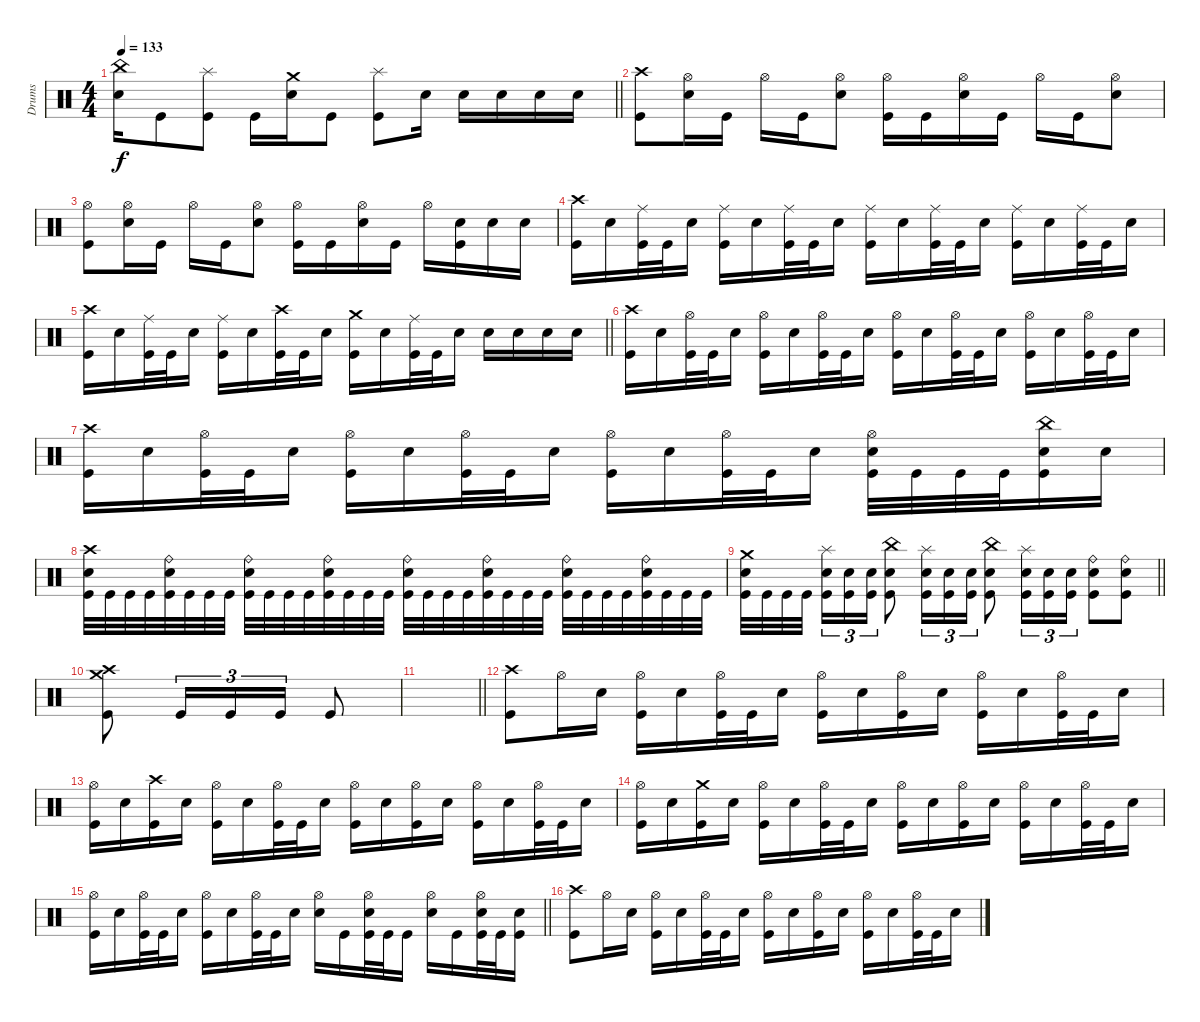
\track ("Drums" "Drums") {instrument percussion}
\staff
\articulation defaults
\ts (4 4)
\tempo 133
\clef neutral
\barLineRight lightlight
\ks c
("China (hit)" "Electric Snare (hit)").16{dy f} "Kick (hit)".8 ("Splash (hit)" "Kick (hit)").8 "Kick (hit)".16 ("Crash medium (hit)" "Electric Snare (hit)").16 "Kick (hit)".8 ("Splash (hit)" "Kick (hit)").8 "Electric Snare (hit)".16 "Electric Snare (hit)".16 "Electric Snare (hit)".16 "Electric Snare (hit)".16 "Electric Snare (hit)".16 |
("Crash high (hit)" "Kick (hit)").8 ("Hi-Hat (open)" "Electric Snare (hit)").16 "Kick (hit)".16 "Hi-Hat (open)".16 "Kick (hit)".16 ("Hi-Hat (open)" "Electric Snare (hit)").8 ("Hi-Hat (open)" "Kick (hit)").16 "Kick (hit)".16 ("Hi-Hat (open)" "Electric Snare (hit)").16 "Kick (hit)".16 "Hi-Hat (open)".16 "Kick (hit)".16 ("Hi-Hat (open)" "Electric Snare (hit)").8 |
("Hi-Hat (open)" "Kick (hit)").8 ("Hi-Hat (open)" "Electric Snare (hit)").16 "Kick (hit)".16 "Hi-Hat (open)".16 "Kick (hit)".16 ("Hi-Hat (open)" "Electric Snare (hit)").8 ("Hi-Hat (open)" "Kick (hit)").16 "Kick (hit)".16 ("Hi-Hat (open)" "Electric Snare (hit)").16 "Kick (hit)".16 "Hi-Hat (open)".16 ("Electric Snare (hit)" "Kick (hit)").16 "Electric Snare (hit)".16 "Electric Snare (hit)".16 |
("Crash high (hit)" "Kick (hit)").16 "Electric Snare (hit)".16 ("Ride (middle)" "Kick (hit)").32 "Kick (hit)".32 "Electric Snare (hit)".16 ("Ride (middle)" "Kick (hit)").16 "Electric Snare (hit)".16 ("Ride (middle)" "Kick (hit)").32 "Kick (hit)".32 "Electric Snare (hit)".16 ("Ride (middle)" "Kick (hit)").16 "Electric Snare (hit)".16 ("Ride (middle)" "Kick (hit)").32 "Kick (hit)".32 "Electric Snare (hit)".16 ("Ride (middle)" "Kick (hit)").16 "Electric Snare (hit)".16 ("Ride (middle)" "Kick (hit)").32 "Kick (hit)".32 "Electric Snare (hit)".16 |
\barLineRight lightlight
("Crash high (hit)" "Kick (hit)").16 "Electric Snare (hit)".16 ("Ride (middle)" "Kick (hit)").32 "Kick (hit)".32 "Electric Snare (hit)".16 ("Ride (middle)" "Kick (hit)").16 "Electric Snare (hit)".16 ("Crash high (hit)" "Kick (hit)").32 "Kick (hit)".32 "Electric Snare (hit)".16 ("Crash medium (hit)" "Kick (hit)").16 "Electric Snare (hit)".16 ("Ride (middle)" "Kick (hit)").32 "Kick (hit)".32 "Electric Snare (hit)".16 "Electric Snare (hit)".16 "Electric Snare (hit)".16 "Electric Snare (hit)".16 "Electric Snare (hit)".16 |
("Crash high (hit)" "Kick (hit)").16 "Electric Snare (hit)".16 ("Hi-Hat (open)" "Kick (hit)").32 "Kick (hit)".32 "Electric Snare (hit)".16 ("Hi-Hat (open)" "Kick (hit)").16 "Electric Snare (hit)".16 ("Hi-Hat (open)" "Kick (hit)").32 "Kick (hit)".32 "Electric Snare (hit)".16 ("Hi-Hat (open)" "Kick (hit)").16 "Electric Snare (hit)".16 ("Hi-Hat (open)" "Kick (hit)").32 "Kick (hit)".32 "Electric Snare (hit)".16 ("Hi-Hat (open)" "Kick (hit)").16 "Electric Snare (hit)".16 ("Hi-Hat (open)" "Kick (hit)").32 "Kick (hit)".32 "Electric Snare (hit)".16 |
("Crash high (hit)" "Kick (hit)").16 "Electric Snare (hit)".16 ("Hi-Hat (open)" "Kick (hit)").32 "Kick (hit)".32 "Electric Snare (hit)".16 ("Hi-Hat (open)" "Kick (hit)").16 "Electric Snare (hit)".16 ("Hi-Hat (open)" "Kick (hit)").32 "Kick (hit)".32 "Electric Snare (hit)".16 ("Hi-Hat (open)" "Kick (hit)").16 "Electric Snare (hit)".16 ("Hi-Hat (open)" "Kick (hit)").32 "Kick (hit)".32 "Electric Snare (hit)".16 ("Hi-Hat (open)" "Electric Snare (hit)" "Kick (hit)").32 "Kick (hit)".32 "Kick (hit)".32 "Kick (hit)".32 ("China (hit)" "Electric Snare (hit)" "Kick (hit)").16 "Electric Snare (hit)".16 |
("Crash high (hit)" "Electric Snare (hit)" "Kick (hit)").32 "Kick (hit)".32 "Kick (hit)".32 "Kick (hit)".32 ("Ride (bell)" "Electric Snare (hit)" "Kick (hit)").32 "Kick (hit)".32 "Kick (hit)".32 "Kick (hit)".32 ("Ride (bell)" "Electric Snare (hit)" "Kick (hit)").32 "Kick (hit)".32 "Kick (hit)".32 "Kick (hit)".32 ("Ride (bell)" "Electric Snare (hit)" "Kick (hit)").32 "Kick (hit)".32 "Kick (hit)".32 "Kick (hit)".32 ("Ride (bell)" "Electric Snare (hit)" "Kick (hit)").32 "Kick (hit)".32 "Kick (hit)".32 "Kick (hit)".32 ("Ride (bell)" "Electric Snare (hit)" "Kick (hit)").32 "Kick (hit)".32 "Kick (hit)".32 "Kick (hit)".32 ("Ride (bell)" "Electric Snare (hit)" "Kick (hit)").32 "Kick (hit)".32 "Kick (hit)".32 "Kick (hit)".32 ("Ride (bell)" "Electric Snare (hit)" "Kick (hit)").32 "Kick (hit)".32 "Kick (hit)".32 "Kick (hit)".32 |
\barLineRight lightlight
("Crash medium (hit)" "Electric Snare (hit)" "Kick (hit)").32 "Kick (hit)".32 "Kick (hit)".32 "Kick (hit)".32{beam splitsecondary} ("Splash (hit)" "Electric Snare (hit)" "Kick (hit)").16{tu (3 2)} ("Electric Snare (hit)" "Kick (hit)").16{tu (3 2)} ("Electric Snare (hit)" "Kick (hit)").16{tu (3 2)} ("China (hit)" "Electric Snare (hit)" "Kick (hit)").8 ("Splash (hit)" "Electric Snare (hit)" "Kick (hit)").16{tu (3 2)} ("Electric Snare (hit)" "Kick (hit)").16{tu (3 2)} ("Electric Snare (hit)" "Kick (hit)").16{tu (3 2)} ("China (hit)" "Electric Snare (hit)" "Kick (hit)").8 ("Splash (hit)" "Electric Snare (hit)" "Kick (hit)").16{tu (3 2)} ("Electric Snare (hit)" "Kick (hit)").16{tu (3 2)} ("Electric Snare (hit)" "Kick (hit)").16{tu (3 2)} ("Ride (bell)" "Electric Snare (hit)" "Kick (hit)").8 ("Ride (bell)" "Electric Snare (hit)" "Kick (hit)").8 |
("Crash high (hit)" "Crash medium (hit)" "Kick (hit)").8 "Kick (hit)".16{tu (3 2)} "Kick (hit)".16{tu (3 2)} "Kick (hit)".16{tu (3 2)} "Kick (hit)".8 |
\barLineRight lightlight
|
\section ("" "")
("Crash high (hit)" "Kick (hit)").8 "Hi-Hat (open)".16 "Electric Snare (hit)".16 ("Hi-Hat (open)" "Kick (hit)").16 "Electric Snare (hit)".16 ("Hi-Hat (open)" "Kick (hit)").32 "Kick (hit)".32 "Electric Snare (hit)".16 ("Hi-Hat (open)" "Kick (hit)").16 "Electric Snare (hit)".16 ("Hi-Hat (open)" "Kick (hit)").16 "Electric Snare (hit)".16 ("Hi-Hat (open)" "Kick (hit)").16 "Electric Snare (hit)".16 ("Hi-Hat (open)" "Kick (hit)").32 "Kick (hit)".32 "Electric Snare (hit)".16 |
("Hi-Hat (open)" "Kick (hit)").16 "Electric Snare (hit)".16 ("Crash high (hit)" "Kick (hit)").16 "Electric Snare (hit)".16 ("Hi-Hat (open)" "Kick (hit)").16 "Electric Snare (hit)".16 ("Hi-Hat (open)" "Kick (hit)").32 "Kick (hit)".32 "Electric Snare (hit)".16 ("Hi-Hat (open)" "Kick (hit)").16 "Electric Snare (hit)".16 ("Hi-Hat (open)" "Kick (hit)").16 "Electric Snare (hit)".16 ("Hi-Hat (open)" "Kick (hit)").16 "Electric Snare (hit)".16 ("Hi-Hat (open)" "Kick (hit)").32 "Kick (hit)".32 "Electric Snare (hit)".16 |
("Hi-Hat (open)" "Kick (hit)").16 "Electric Snare (hit)".16 ("Crash medium (hit)" "Kick (hit)").16 "Electric Snare (hit)".16 ("Hi-Hat (open)" "Kick (hit)").16 "Electric Snare (hit)".16 ("Hi-Hat (open)" "Kick (hit)").32 "Kick (hit)".32 "Electric Snare (hit)".16 ("Hi-Hat (open)" "Kick (hit)").16 "Electric Snare (hit)".16 ("Hi-Hat (open)" "Kick (hit)").16 "Electric Snare (hit)".16 ("Hi-Hat (open)" "Kick (hit)").16 "Electric Snare (hit)".16 ("Hi-Hat (open)" "Kick (hit)").32 "Kick (hit)".32 "Electric Snare (hit)".16 |
\barLineRight lightlight
("Hi-Hat (open)" "Kick (hit)").16 "Electric Snare (hit)".16 ("Hi-Hat (open)" "Kick (hit)").32 "Kick (hit)".32 "Electric Snare (hit)".16 ("Hi-Hat (open)" "Kick (hit)").16 "Electric Snare (hit)".16 ("Hi-Hat (open)" "Kick (hit)").32 "Kick (hit)".32 "Electric Snare (hit)".16 ("Hi-Hat (open)" "Electric Snare (hit)").16 "Kick (hit)".16 ("Hi-Hat (open)" "Electric Snare (hit)" "Kick (hit)").32 "Kick (hit)".32 "Kick (hit)".16 ("Hi-Hat (open)" "Electric Snare (hit)").16 "Kick (hit)".16 ("Hi-Hat (open)" "Electric Snare (hit)" "Kick (hit)").32 "Kick (hit)".32 ("Electric Snare (hit)" "Kick (hit)").16 |
("Crash high (hit)" "Kick (hit)").8 "Hi-Hat (open)".16 "Electric Snare (hit)".16 ("Hi-Hat (open)" "Kick (hit)").16 "Electric Snare (hit)".16 ("Hi-Hat (open)" "Kick (hit)").32 "Kick (hit)".32 "Electric Snare (hit)".16 ("Hi-Hat (open)" "Kick (hit)").16 "Electric Snare (hit)".16 ("Hi-Hat (open)" "Kick (hit)").16 "Electric Snare (hit)".16 ("Hi-Hat (open)" "Kick (hit)").16 "Electric Snare (hit)".16 ("Hi-Hat (open)" "Kick (hit)").32 "Kick (hit)".32 "Electric Snare (hit)".16
